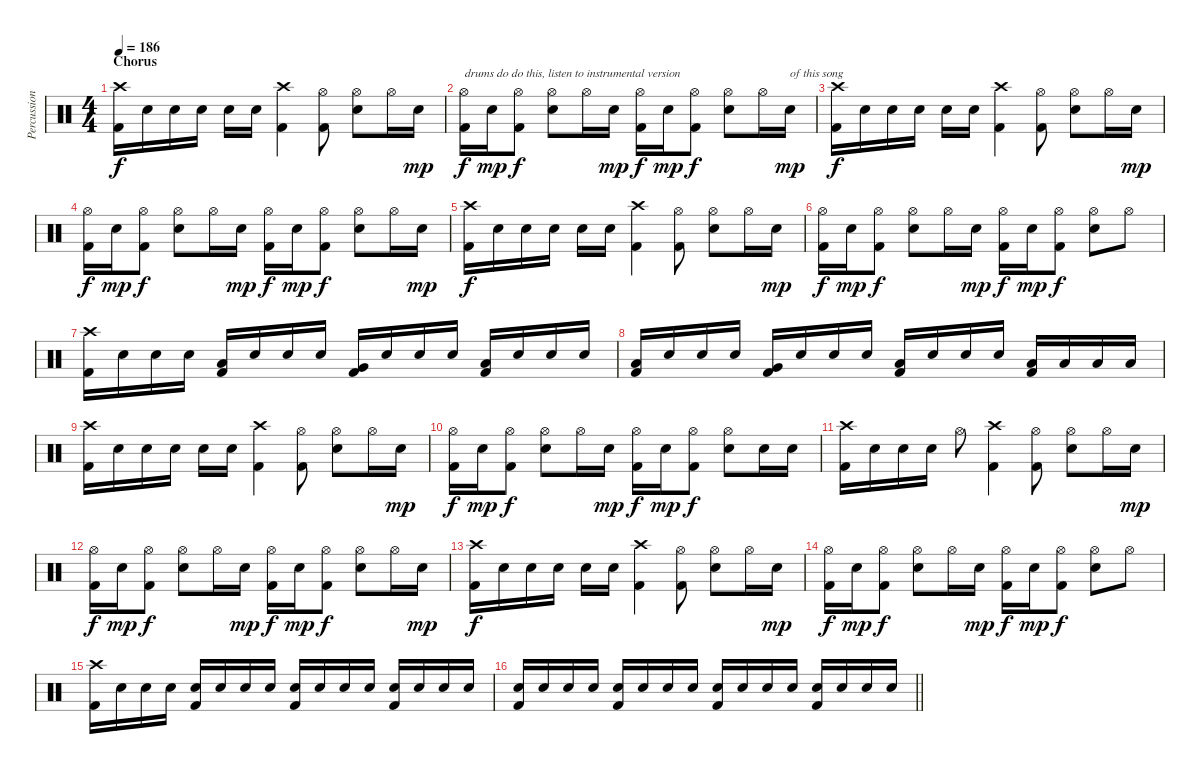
\track ("Percussion" "Percussion") {instrument percussion}
\staff {score}
\articulation defaults
\ts (4 4)
\section ("" "Chorus")
\tempo 186
\clef neutral
\ks c
("Crash high (hit)" "Kick (hit) 2").16{dy f} "Electric Snare (hit)".16 "Electric Snare (hit)".16 "Electric Snare (hit)".16 "Electric Snare (hit)".16 "Electric Snare (hit)".16 ("Crash high (hit)" "Kick (hit) 2").4 ("Hi-Hat (open)" "Kick (hit) 2").8 ("Hi-Hat (open)" "Electric Snare (hit)").8 "Hi-Hat (open)".16 "Electric Snare (hit)".16{dy mp} |
("Hi-Hat (open)" "Kick (hit) 2").16{txt "drums do do this, listen to instrumental version " dy f} "Electric Snare (hit)".16{dy mp} ("Hi-Hat (open)" "Kick (hit) 2").8{dy f} ("Hi-Hat (open)" "Electric Snare (hit)").8 "Hi-Hat (open)".16 "Electric Snare (hit)".16{dy mp} ("Hi-Hat (open)" "Kick (hit) 2").16{dy f} "Electric Snare (hit)".16{dy mp} ("Hi-Hat (open)" "Kick (hit) 2").8{dy f} ("Hi-Hat (open)" "Electric Snare (hit)").8 "Hi-Hat (open)".16 "Electric Snare (hit)".16{txt "of this song" dy mp} |
("Crash high (hit)" "Kick (hit) 2").16{dy f} "Electric Snare (hit)".16 "Electric Snare (hit)".16 "Electric Snare (hit)".16 "Electric Snare (hit)".16 "Electric Snare (hit)".16 ("Crash high (hit)" "Kick (hit) 2").4 ("Hi-Hat (open)" "Kick (hit) 2").8 ("Hi-Hat (open)" "Electric Snare (hit)").8 "Hi-Hat (open)".16 "Electric Snare (hit)".16{dy mp} |
("Hi-Hat (open)" "Kick (hit) 2").16{dy f} "Electric Snare (hit)".16{dy mp} ("Hi-Hat (open)" "Kick (hit) 2").8{dy f} ("Hi-Hat (open)" "Electric Snare (hit)").8 "Hi-Hat (open)".16 "Electric Snare (hit)".16{dy mp} ("Hi-Hat (open)" "Kick (hit) 2").16{dy f} "Electric Snare (hit)".16{dy mp} ("Hi-Hat (open)" "Kick (hit) 2").8{dy f} ("Hi-Hat (open)" "Electric Snare (hit)").8 "Hi-Hat (open)".16 "Electric Snare (hit)".16{dy mp} |
("Crash high (hit)" "Kick (hit) 2").16{dy f} "Electric Snare (hit)".16 "Electric Snare (hit)".16 "Electric Snare (hit)".16 "Electric Snare (hit)".16 "Electric Snare (hit)".16 ("Crash high (hit)" "Kick (hit) 2").4 ("Hi-Hat (open)" "Kick (hit) 2").8 ("Hi-Hat (open)" "Electric Snare (hit)").8 "Hi-Hat (open)".16 "Electric Snare (hit)".16{dy mp} |
("Hi-Hat (open)" "Kick (hit) 2").16{dy f} "Electric Snare (hit)".16{dy mp} ("Hi-Hat (open)" "Kick (hit) 2").8{dy f} ("Hi-Hat (open)" "Electric Snare (hit)").8 "Hi-Hat (open)".16 "Electric Snare (hit)".16{dy mp} ("Hi-Hat (open)" "Kick (hit) 2").16{dy f} "Electric Snare (hit)".16{dy mp} ("Hi-Hat (open)" "Kick (hit) 2").8{dy f} ("Hi-Hat (open)" "Electric Snare (hit)").8 "Hi-Hat (open)".8 |
("Crash high (hit)" "Kick (hit) 2").16 "Electric Snare (hit)".16 "Electric Snare (hit)".16 "Electric Snare (hit)".16 ("Low Tom (hit)" "Kick (hit) 2").16 "Electric Snare (hit)".16 "Electric Snare (hit)".16 "Electric Snare (hit)".16 ("Very Low Tom (hit)" "Kick (hit) 2").16 "Electric Snare (hit)".16 "Electric Snare (hit)".16 "Electric Snare (hit)".16 ("Low Floor Tom (hit)" "Kick (hit) 2").16 "Electric Snare (hit)".16 "Electric Snare (hit)".16 "Electric Snare (hit)".16 |
("Low Tom (hit)" "Kick (hit) 2").16 "Electric Snare (hit)".16 "Electric Snare (hit)".16 "Electric Snare (hit)".16 ("Very Low Tom (hit)" "Kick (hit) 2").16 "Electric Snare (hit)".16 "Electric Snare (hit)".16 "Electric Snare (hit)".16 ("Low Tom (hit)" "Kick (hit) 2").16 "Electric Snare (hit)".16 "Electric Snare (hit)".16 "Electric Snare (hit)".16 ("Low Floor Tom (hit)" "Kick (hit) 2").16 "Low Floor Tom (hit)".16 "Low Floor Tom (hit)".16 "Low Floor Tom (hit)".16 |
("Crash high (hit)" "Kick (hit) 2").16 "Electric Snare (hit)".16 "Electric Snare (hit)".16 "Electric Snare (hit)".16 "Electric Snare (hit)".16 "Electric Snare (hit)".16 ("Crash high (hit)" "Kick (hit) 2").4 ("Hi-Hat (open)" "Kick (hit) 2").8 ("Hi-Hat (open)" "Electric Snare (hit)").8 "Hi-Hat (open)".16 "Electric Snare (hit)".16{dy mp} |
("Hi-Hat (open)" "Kick (hit) 2").16{dy f} "Electric Snare (hit)".16{dy mp} ("Hi-Hat (open)" "Kick (hit) 2").8{dy f} ("Hi-Hat (open)" "Electric Snare (hit)").8 "Hi-Hat (open)".16 "Electric Snare (hit)".16{dy mp} ("Hi-Hat (open)" "Kick (hit) 2").16{dy f} "Electric Snare (hit)".16{dy mp} ("Hi-Hat (open)" "Kick (hit) 2").8{dy f} ("Hi-Hat (open)" "Electric Snare (hit)").8 "Electric Snare (hit)".16 "Electric Snare (hit)".16 |
("Crash high (hit)" "Kick (hit) 2").16 "Electric Snare (hit)".16 "Electric Snare (hit)".16 "Electric Snare (hit)".16 "Hi-Hat (open)".8 ("Crash high (hit)" "Kick (hit) 2").4 ("Hi-Hat (open)" "Kick (hit) 2").8 ("Hi-Hat (open)" "Electric Snare (hit)").8 "Hi-Hat (open)".16 "Electric Snare (hit)".16{dy mp} |
("Hi-Hat (open)" "Kick (hit) 2").16{dy f} "Electric Snare (hit)".16{dy mp} ("Hi-Hat (open)" "Kick (hit) 2").8{dy f} ("Hi-Hat (open)" "Electric Snare (hit)").8 "Hi-Hat (open)".16 "Electric Snare (hit)".16{dy mp} ("Hi-Hat (open)" "Kick (hit) 2").16{dy f} "Electric Snare (hit)".16{dy mp} ("Hi-Hat (open)" "Kick (hit) 2").8{dy f} ("Hi-Hat (open)" "Electric Snare (hit)").8 "Hi-Hat (open)".16 "Electric Snare (hit)".16{dy mp} |
("Crash high (hit)" "Kick (hit) 2").16{dy f} "Electric Snare (hit)".16 "Electric Snare (hit)".16 "Electric Snare (hit)".16 "Electric Snare (hit)".16 "Electric Snare (hit)".16 ("Crash high (hit)" "Kick (hit) 2").4 ("Hi-Hat (open)" "Kick (hit) 2").8 ("Hi-Hat (open)" "Electric Snare (hit)").8 "Hi-Hat (open)".16 "Electric Snare (hit)".16{dy mp} |
("Hi-Hat (open)" "Kick (hit) 2").16{dy f} "Electric Snare (hit)".16{dy mp} ("Hi-Hat (open)" "Kick (hit) 2").8{dy f} ("Hi-Hat (open)" "Electric Snare (hit)").8 "Hi-Hat (open)".16 "Electric Snare (hit)".16{dy mp} ("Hi-Hat (open)" "Kick (hit) 2").16{dy f} "Electric Snare (hit)".16{dy mp} ("Hi-Hat (open)" "Kick (hit) 2").8{dy f} ("Hi-Hat (open)" "Electric Snare (hit)").8 "Hi-Hat (open)".8 |
("Crash high (hit)" "Kick (hit) 2").16 "Electric Snare (hit)".16 "Electric Snare (hit)".16 "Electric Snare (hit)".16 ("Electric Snare (hit)" "Kick (hit) 2").16 "Electric Snare (hit)".16 "Electric Snare (hit)".16 "Electric Snare (hit)".16 ("Electric Snare (hit)" "Kick (hit) 2").16 "Electric Snare (hit)".16 "Electric Snare (hit)".16 "Electric Snare (hit)".16 ("Electric Snare (hit)" "Kick (hit) 2").16 "Electric Snare (hit)".16 "Electric Snare (hit)".16 "Electric Snare (hit)".16 |
\barLineRight lightlight
("Electric Snare (hit)" "Kick (hit) 2").16 "Electric Snare (hit)".16 "Electric Snare (hit)".16 "Electric Snare (hit)".16 ("Electric Snare (hit)" "Kick (hit) 2").16 "Electric Snare (hit)".16 "Electric Snare (hit)".16 "Electric Snare (hit)".16 ("Electric Snare (hit)" "Kick (hit) 2").16 "Electric Snare (hit)".16 "Electric Snare (hit)".16 "Electric Snare (hit)".16 ("Electric Snare (hit)" "Kick (hit) 2").16 "Electric Snare (hit)".16 "Electric Snare (hit)".16 "Electric Snare (hit)".16
